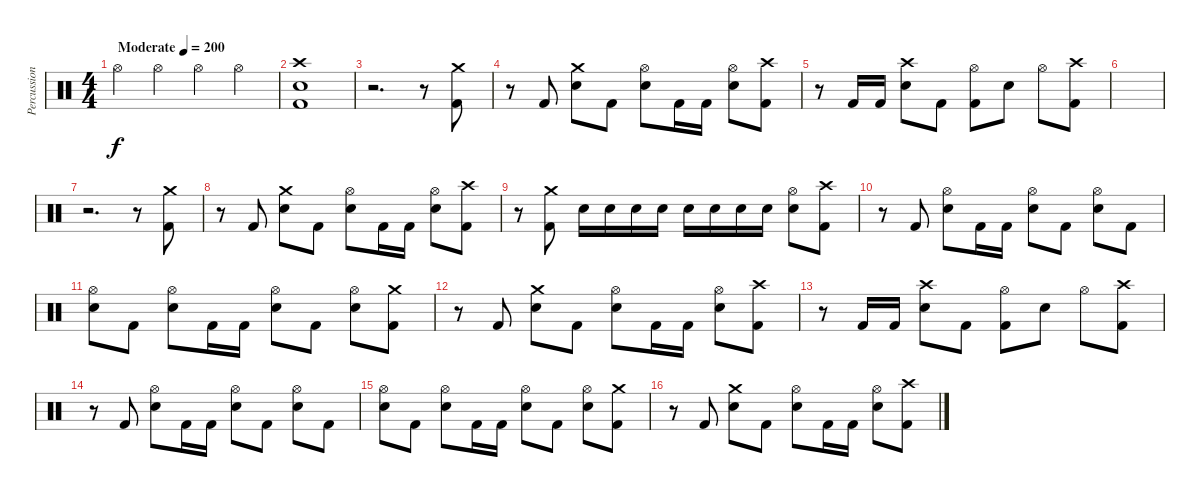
\track ("Percussion" "Percussion") {instrument percussion}
\staff {score}
\articulation defaults
\ts (4 4)
\tempo (200 "Moderate")
\clef neutral
\ks c "Hi-Hat (open)".4{dy f} "Hi-Hat (open)".4 "Hi-Hat (open)".4 "Hi-Hat (open)".4
|
("Crash high (hit)" "Snare (hit) 2" "Kick (hit) 2").1 |
r.2{d} r.8 ("Crash medium (hit)" "Kick (hit) 2").8 |
r.8 "Kick (hit) 2".8 ("Crash medium (hit)" "Snare (hit) 2").8 "Kick (hit) 2".8 ("Hi-Hat (open)" "Snare (hit) 2").8 "Kick (hit) 2".16 "Kick (hit) 2".16 ("Hi-Hat (open)" "Snare (hit) 2").8 ("Crash high (hit)" "Kick (hit) 2").8 |
r.8 "Kick (hit) 2".16 "Kick (hit) 2".16 ("Crash high (hit)" "Snare (hit) 2").8 "Kick (hit) 2".8 ("Hi-Hat (open)" "Kick (hit) 2").8 "Snare (hit) 2".8 "Hi-Hat (open)".8 ("Crash high (hit)" "Kick (hit) 2").8 |
|
r.2{d} r.8 ("Crash medium (hit)" "Kick (hit) 2").8 |
r.8 "Kick (hit) 2".8 ("Crash medium (hit)" "Snare (hit) 2").8 "Kick (hit) 2".8 ("Hi-Hat (open)" "Snare (hit) 2").8 "Kick (hit) 2".16 "Kick (hit) 2".16 ("Hi-Hat (open)" "Snare (hit) 2").8 ("Crash high (hit)" "Kick (hit) 2").8 |
r.8 ("Crash medium (hit)" "Kick (hit) 2").8 "Snare (hit) 2".16 "Snare (hit) 2".16 "Snare (hit) 2".16 "Snare (hit) 2".16 "Snare (hit) 2".16 "Snare (hit) 2".16 "Snare (hit) 2".16 "Snare (hit) 2".16 ("Hi-Hat (open)" "Snare (hit) 2").8 ("Crash high (hit)" "Kick (hit) 2").8 |
r.8 "Kick (hit) 2".8 ("Hi-Hat (open)" "Snare (hit) 2").8 "Kick (hit) 2".16 "Kick (hit) 2".16 ("Hi-Hat (open)" "Snare (hit) 2").8 "Kick (hit) 2".8 ("Hi-Hat (open)" "Snare (hit) 2").8 "Kick (hit) 2".8 |
("Hi-Hat (open)" "Snare (hit) 2").8 "Kick (hit) 2".8 ("Hi-Hat (open)" "Snare (hit) 2").8 "Kick (hit) 2".16 "Kick (hit) 2".16 ("Hi-Hat (open)" "Snare (hit) 2").8 "Kick (hit) 2".8 ("Hi-Hat (open)" "Snare (hit) 2").8 ("Crash medium (hit)" "Kick (hit) 2").8 |
r.8 "Kick (hit) 2".8 ("Crash medium (hit)" "Snare (hit) 2").8 "Kick (hit) 2".8 ("Hi-Hat (open)" "Snare (hit) 2").8 "Kick (hit) 2".16 "Kick (hit) 2".16 ("Hi-Hat (open)" "Snare (hit) 2").8 ("Crash high (hit)" "Kick (hit) 2").8 |
r.8 "Kick (hit) 2".16 "Kick (hit) 2".16 ("Crash high (hit)" "Snare (hit) 2").8 "Kick (hit) 2".8 ("Hi-Hat (open)" "Kick (hit) 2").8 "Snare (hit) 2".8 "Hi-Hat (open)".8 ("Crash high (hit)" "Kick (hit) 2").8 |
r.8 "Kick (hit) 2".8 ("Hi-Hat (open)" "Snare (hit) 2").8 "Kick (hit) 2".16 "Kick (hit) 2".16 ("Hi-Hat (open)" "Snare (hit) 2").8 "Kick (hit) 2".8 ("Hi-Hat (open)" "Snare (hit) 2").8 "Kick (hit) 2".8 |
("Hi-Hat (open)" "Snare (hit) 2").8 "Kick (hit) 2".8 ("Hi-Hat (open)" "Snare (hit) 2").8 "Kick (hit) 2".16 "Kick (hit) 2".16 ("Hi-Hat (open)" "Snare (hit) 2").8 "Kick (hit) 2".8 ("Hi-Hat (open)" "Snare (hit) 2").8 ("Crash medium (hit)" "Kick (hit) 2").8 |
r.8 "Kick (hit) 2".8 ("Crash medium (hit)" "Snare (hit) 2").8 "Kick (hit) 2".8 ("Hi-Hat (open)" "Snare (hit) 2").8 "Kick (hit) 2".16 "Kick (hit) 2".16 ("Hi-Hat (open)" "Snare (hit) 2").8 ("Crash high (hit)" "Kick (hit) 2").8
